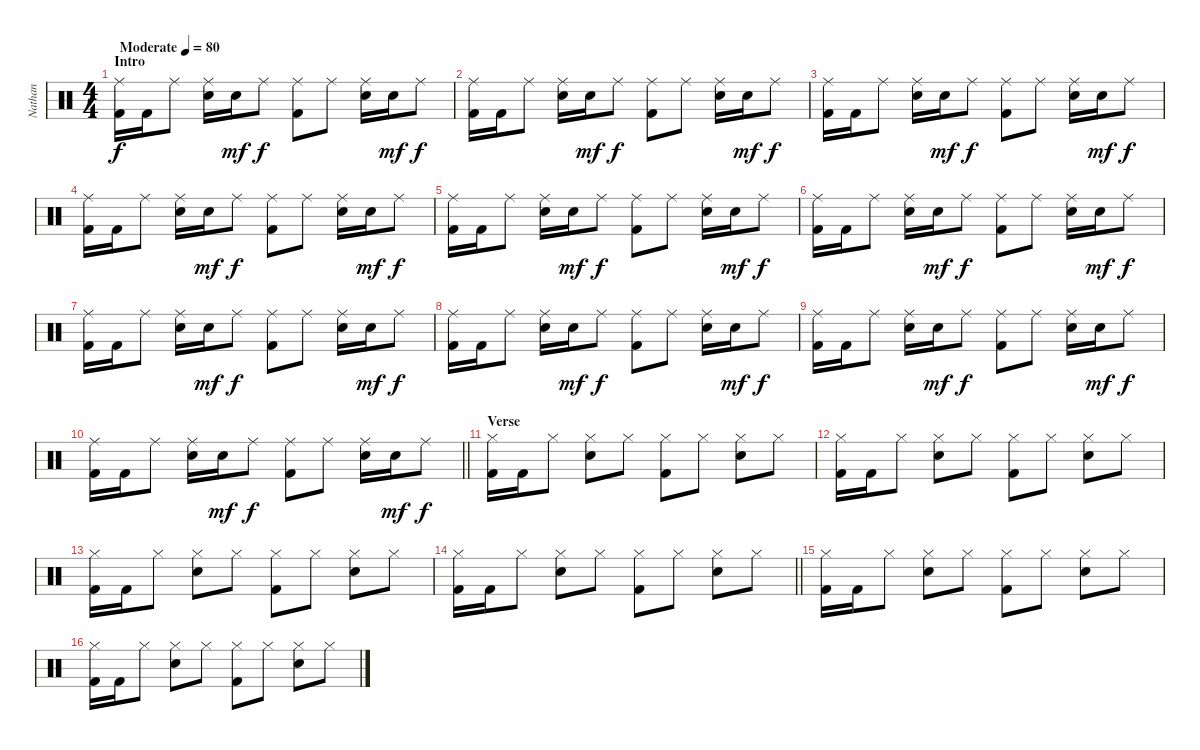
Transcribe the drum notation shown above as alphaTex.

\track ("Nathan" "Nathan") {instrument percussion}
\staff {score}
\articulation defaults
\ts (4 4)
\section ("" "Intro")
\tempo (80 "Moderate")
\clef neutral
\ks c
("Ride (middle)" "Kick (hit) 2").16{dy f} "Kick (hit) 2".16 "Ride (middle)".8 ("Ride (middle)" "Electric Snare (hit)").16 "Electric Snare (hit)".16{dy mf} "Ride (middle)".8{dy f} ("Ride (middle)" "Kick (hit) 2").8 "Ride (middle)".8 ("Ride (middle)" "Electric Snare (hit)").16 "Electric Snare (hit)".16{dy mf} "Ride (middle)".8{dy f} |
("Ride (middle)" "Kick (hit) 2").16 "Kick (hit) 2".16 "Ride (middle)".8 ("Ride (middle)" "Electric Snare (hit)").16 "Electric Snare (hit)".16{dy mf} "Ride (middle)".8{dy f} ("Ride (middle)" "Kick (hit) 2").8 "Ride (middle)".8 ("Ride (middle)" "Electric Snare (hit)").16 "Electric Snare (hit)".16{dy mf} "Ride (middle)".8{dy f} |
("Ride (middle)" "Kick (hit) 2").16 "Kick (hit) 2".16 "Ride (middle)".8 ("Ride (middle)" "Electric Snare (hit)").16 "Electric Snare (hit)".16{dy mf} "Ride (middle)".8{dy f} ("Ride (middle)" "Kick (hit) 2").8 "Ride (middle)".8 ("Ride (middle)" "Electric Snare (hit)").16 "Electric Snare (hit)".16{dy mf} "Ride (middle)".8{dy f} |
("Ride (middle)" "Kick (hit) 2").16 "Kick (hit) 2".16 "Ride (middle)".8 ("Ride (middle)" "Electric Snare (hit)").16 "Electric Snare (hit)".16{dy mf} "Ride (middle)".8{dy f} ("Ride (middle)" "Kick (hit) 2").8 "Ride (middle)".8 ("Ride (middle)" "Electric Snare (hit)").16 "Electric Snare (hit)".16{dy mf} "Ride (middle)".8{dy f} |
("Ride (middle)" "Kick (hit) 2").16 "Kick (hit) 2".16 "Ride (middle)".8 ("Ride (middle)" "Electric Snare (hit)").16 "Electric Snare (hit)".16{dy mf} "Ride (middle)".8{dy f} ("Ride (middle)" "Kick (hit) 2").8 "Ride (middle)".8 ("Ride (middle)" "Electric Snare (hit)").16 "Electric Snare (hit)".16{dy mf} "Ride (middle)".8{dy f} |
("Ride (middle)" "Kick (hit) 2").16 "Kick (hit) 2".16 "Ride (middle)".8 ("Ride (middle)" "Electric Snare (hit)").16 "Electric Snare (hit)".16{dy mf} "Ride (middle)".8{dy f} ("Ride (middle)" "Kick (hit) 2").8 "Ride (middle)".8 ("Ride (middle)" "Electric Snare (hit)").16 "Electric Snare (hit)".16{dy mf} "Ride (middle)".8{dy f} |
("Ride (middle)" "Kick (hit) 2").16 "Kick (hit) 2".16 "Ride (middle)".8 ("Ride (middle)" "Electric Snare (hit)").16 "Electric Snare (hit)".16{dy mf} "Ride (middle)".8{dy f} ("Ride (middle)" "Kick (hit) 2").8 "Ride (middle)".8 ("Ride (middle)" "Electric Snare (hit)").16 "Electric Snare (hit)".16{dy mf} "Ride (middle)".8{dy f} |
("Ride (middle)" "Kick (hit) 2").16 "Kick (hit) 2".16 "Ride (middle)".8 ("Ride (middle)" "Electric Snare (hit)").16 "Electric Snare (hit)".16{dy mf} "Ride (middle)".8{dy f} ("Ride (middle)" "Kick (hit) 2").8 "Ride (middle)".8 ("Ride (middle)" "Electric Snare (hit)").16 "Electric Snare (hit)".16{dy mf} "Ride (middle)".8{dy f} |
("Ride (middle)" "Kick (hit) 2").16 "Kick (hit) 2".16 "Ride (middle)".8 ("Ride (middle)" "Electric Snare (hit)").16 "Electric Snare (hit)".16{dy mf} "Ride (middle)".8{dy f} ("Ride (middle)" "Kick (hit) 2").8 "Ride (middle)".8 ("Ride (middle)" "Electric Snare (hit)").16 "Electric Snare (hit)".16{dy mf} "Ride (middle)".8{dy f} |
\barLineRight lightlight
("Ride (middle)" "Kick (hit) 2").16 "Kick (hit) 2".16 "Ride (middle)".8 ("Ride (middle)" "Electric Snare (hit)").16 "Electric Snare (hit)".16{dy mf} "Ride (middle)".8{dy f} ("Ride (middle)" "Kick (hit) 2").8 "Ride (middle)".8 ("Ride (middle)" "Electric Snare (hit)").16 "Electric Snare (hit)".16{dy mf} "Ride (middle)".8{dy f} |
\section ("" "Verse")
("Hi-Hat (closed)" "Kick (hit) 2").16 "Kick (hit) 2".16 "Hi-Hat (closed)".8 ("Hi-Hat (closed)" "Electric Snare (hit)").8 "Hi-Hat (closed)".8 ("Hi-Hat (closed)" "Kick (hit) 2").8 "Hi-Hat (closed)".8 ("Hi-Hat (closed)" "Electric Snare (hit)").8 "Hi-Hat (closed)".8 |
("Hi-Hat (closed)" "Kick (hit) 2").16 "Kick (hit) 2".16 "Hi-Hat (closed)".8 ("Hi-Hat (closed)" "Electric Snare (hit)").8 "Hi-Hat (closed)".8 ("Hi-Hat (closed)" "Kick (hit) 2").8 "Hi-Hat (closed)".8 ("Hi-Hat (closed)" "Electric Snare (hit)").8 "Hi-Hat (closed)".8 |
("Hi-Hat (closed)" "Kick (hit) 2").16 "Kick (hit) 2".16 "Hi-Hat (closed)".8 ("Hi-Hat (closed)" "Electric Snare (hit)").8 "Hi-Hat (closed)".8 ("Hi-Hat (closed)" "Kick (hit) 2").8 "Hi-Hat (closed)".8 ("Hi-Hat (closed)" "Electric Snare (hit)").8 "Hi-Hat (closed)".8 |
\barLineRight lightlight
("Hi-Hat (closed)" "Kick (hit) 2").16 "Kick (hit) 2".16 "Hi-Hat (closed)".8 ("Hi-Hat (closed)" "Electric Snare (hit)").8 "Hi-Hat (closed)".8 ("Hi-Hat (closed)" "Kick (hit) 2").8 "Hi-Hat (closed)".8 ("Hi-Hat (closed)" "Electric Snare (hit)").8 "Hi-Hat (closed)".8 |
("Hi-Hat (closed)" "Kick (hit) 2").16 "Kick (hit) 2".16 "Hi-Hat (closed)".8 ("Hi-Hat (closed)" "Electric Snare (hit)").8 "Hi-Hat (closed)".8 ("Hi-Hat (closed)" "Kick (hit) 2").8 "Hi-Hat (closed)".8 ("Hi-Hat (closed)" "Electric Snare (hit)").8 "Hi-Hat (closed)".8 |
("Hi-Hat (closed)" "Kick (hit) 2").16 "Kick (hit) 2".16 "Hi-Hat (closed)".8 ("Hi-Hat (closed)" "Electric Snare (hit)").8 "Hi-Hat (closed)".8 ("Hi-Hat (closed)" "Kick (hit) 2").8 "Hi-Hat (closed)".8 ("Hi-Hat (closed)" "Electric Snare (hit)").8 "Hi-Hat (closed)".8
